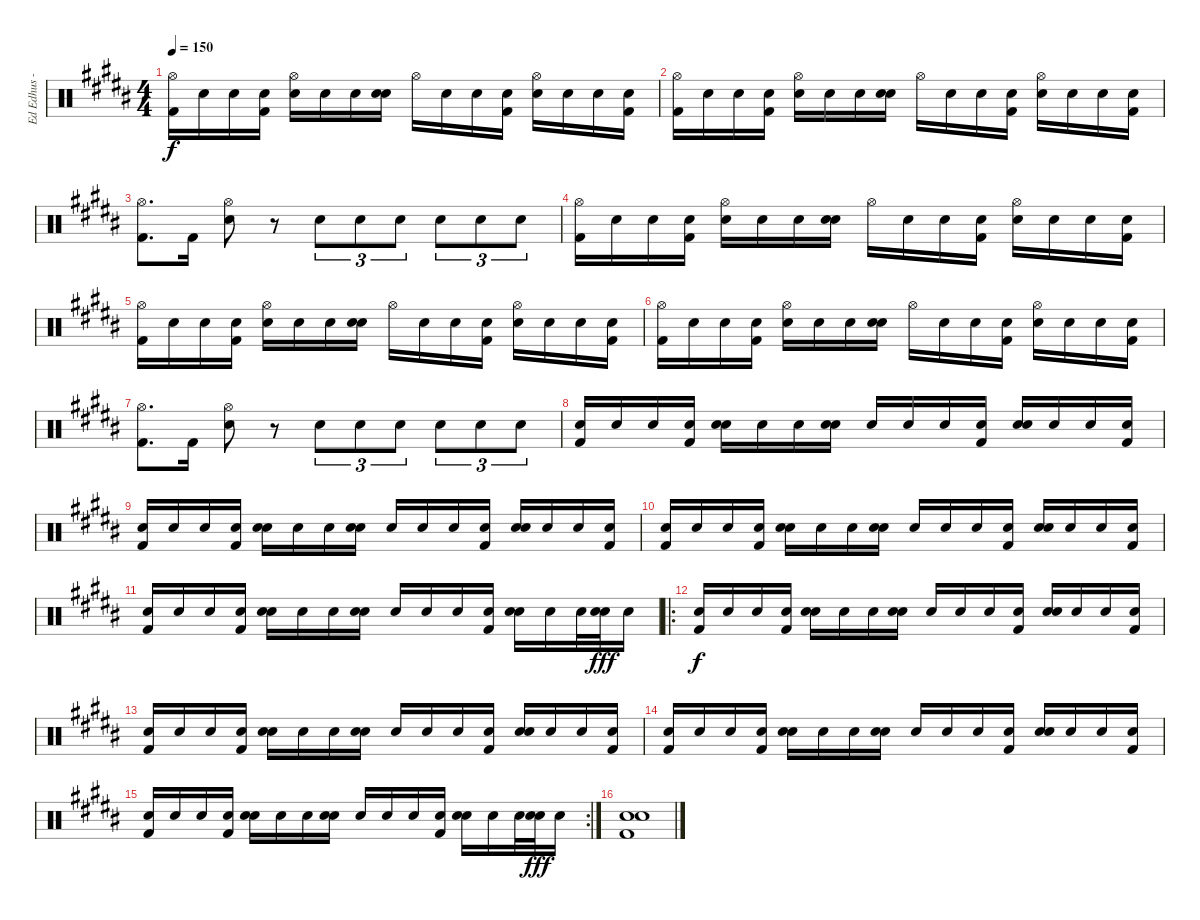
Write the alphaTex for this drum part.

\track ("Ed Edhus - Drums" "Ed Edhus -") {instrument percussion bank 127}
\staff {score}
\articulation defaults
\ts (4 4)
\tempo 150
\clef neutral
\ks g#minor
("Hi-Hat (open)" "Kick (hit) 2").16{dy f} "Snare (hit)".16 "Snare (hit)".16 ("Snare (hit)" "Kick (hit) 2").16 ("Hi-Hat (open)" "Snare (hit) 2").16 "Snare (hit)".16 "Snare (hit)".16 ("Snare (hit)" "Snare (hit) 2").16 "Hi-Hat (open)".16 "Snare (hit)".16 "Snare (hit)".16 ("Snare (hit)" "Kick (hit) 2").16 ("Hi-Hat (open)" "Snare (hit) 2").16 "Snare (hit)".16 "Snare (hit)".16 ("Snare (hit)" "Kick (hit) 2").16 |
("Hi-Hat (open)" "Kick (hit) 2").16 "Snare (hit)".16 "Snare (hit)".16 ("Snare (hit)" "Kick (hit) 2").16 ("Hi-Hat (open)" "Snare (hit) 2").16 "Snare (hit)".16 "Snare (hit)".16 ("Snare (hit)" "Snare (hit) 2").16 "Hi-Hat (open)".16 "Snare (hit)".16 "Snare (hit)".16 ("Snare (hit)" "Kick (hit) 2").16 ("Hi-Hat (open)" "Snare (hit) 2").16 "Snare (hit)".16 "Snare (hit)".16 ("Snare (hit)" "Kick (hit) 2").16 |
("Hi-Hat (open)" "Kick (hit) 2").8{d} "Kick (hit) 2".16 ("Hi-Hat (open)" "Snare (hit) 2").8 r.8 "Snare (hit) 2".8{tu (3 2)} "Snare (hit) 2".8{tu (3 2)} "Snare (hit) 2".8{tu (3 2)} "Snare (hit) 2".8{tu (3 2)} "Snare (hit) 2".8{tu (3 2)} "Snare (hit) 2".8{tu (3 2)} |
("Hi-Hat (open)" "Kick (hit) 2").16 "Snare (hit)".16 "Snare (hit)".16 ("Snare (hit)" "Kick (hit) 2").16 ("Hi-Hat (open)" "Snare (hit) 2").16 "Snare (hit)".16 "Snare (hit)".16 ("Snare (hit)" "Snare (hit) 2").16 "Hi-Hat (open)".16 "Snare (hit)".16 "Snare (hit)".16 ("Snare (hit)" "Kick (hit) 2").16 ("Hi-Hat (open)" "Snare (hit) 2").16 "Snare (hit)".16 "Snare (hit)".16 ("Snare (hit)" "Kick (hit) 2").16 |
("Hi-Hat (open)" "Kick (hit) 2").16 "Snare (hit)".16 "Snare (hit)".16 ("Snare (hit)" "Kick (hit) 2").16 ("Hi-Hat (open)" "Snare (hit) 2").16 "Snare (hit)".16 "Snare (hit)".16 ("Snare (hit)" "Snare (hit) 2").16 "Hi-Hat (open)".16 "Snare (hit)".16 "Snare (hit)".16 ("Snare (hit)" "Kick (hit) 2").16 ("Hi-Hat (open)" "Snare (hit) 2").16 "Snare (hit)".16 "Snare (hit)".16 ("Snare (hit)" "Kick (hit) 2").16 |
("Hi-Hat (open)" "Kick (hit) 2").16 "Snare (hit)".16 "Snare (hit)".16 ("Snare (hit)" "Kick (hit) 2").16 ("Hi-Hat (open)" "Snare (hit) 2").16 "Snare (hit)".16 "Snare (hit)".16 ("Snare (hit)" "Snare (hit) 2").16 "Hi-Hat (open)".16 "Snare (hit)".16 "Snare (hit)".16 ("Snare (hit)" "Kick (hit) 2").16 ("Hi-Hat (open)" "Snare (hit) 2").16 "Snare (hit)".16 "Snare (hit)".16 ("Snare (hit)" "Kick (hit) 2").16 |
("Hi-Hat (open)" "Kick (hit) 2").8{d} "Kick (hit) 2".16 ("Hi-Hat (open)" "Snare (hit) 2").8 r.8 "Snare (hit) 2".8{tu (3 2)} "Snare (hit) 2".8{tu (3 2)} "Snare (hit) 2".8{tu (3 2)} "Snare (hit) 2".8{tu (3 2)} "Snare (hit) 2".8{tu (3 2)} "Snare (hit) 2".8{tu (3 2)} |
("Snare (hit)" "Kick (hit) 2").16 "Snare (hit)".16 "Snare (hit)".16 ("Snare (hit)" "Kick (hit) 2").16 ("Snare (hit)" "Snare (hit) 2").16 "Snare (hit)".16 "Snare (hit)".16 ("Snare (hit)" "Snare (hit) 2").16 "Snare (hit)".16 "Snare (hit)".16 "Snare (hit)".16 ("Snare (hit)" "Kick (hit) 2").16 ("Snare (hit)" "Snare (hit) 2").16 "Snare (hit)".16 "Snare (hit)".16 ("Snare (hit)" "Kick (hit) 2").16 |
("Snare (hit)" "Kick (hit) 2").16 "Snare (hit)".16 "Snare (hit)".16 ("Snare (hit)" "Kick (hit) 2").16 ("Snare (hit)" "Snare (hit) 2").16 "Snare (hit)".16 "Snare (hit)".16 ("Snare (hit)" "Snare (hit) 2").16 "Snare (hit)".16 "Snare (hit)".16 "Snare (hit)".16 ("Snare (hit)" "Kick (hit) 2").16 ("Snare (hit)" "Snare (hit) 2").16 "Snare (hit)".16 "Snare (hit)".16 ("Snare (hit)" "Kick (hit) 2").16 |
("Snare (hit)" "Kick (hit) 2").16 "Snare (hit)".16 "Snare (hit)".16 ("Snare (hit)" "Kick (hit) 2").16 ("Snare (hit)" "Snare (hit) 2").16 "Snare (hit)".16 "Snare (hit)".16 ("Snare (hit)" "Snare (hit) 2").16 "Snare (hit)".16 "Snare (hit)".16 "Snare (hit)".16 ("Snare (hit)" "Kick (hit) 2").16 ("Snare (hit)" "Snare (hit) 2").16 "Snare (hit)".16 "Snare (hit)".16 ("Snare (hit)" "Kick (hit) 2").16 |
("Snare (hit)" "Kick (hit) 2").16 "Snare (hit)".16 "Snare (hit)".16 ("Snare (hit)" "Kick (hit) 2").16 ("Snare (hit)" "Snare (hit) 2").16 "Snare (hit)".16 "Snare (hit)".16 ("Snare (hit)" "Snare (hit) 2").16 "Snare (hit)".16 "Snare (hit)".16 "Snare (hit)".16 ("Snare (hit)" "Kick (hit) 2").16 ("Snare (hit)" "Snare (hit) 2").16 "Snare (hit)".16 "Snare (hit)".32 ("Snare (hit)" "Snare (hit) 2").32{dy fff} "Snare (hit)".16 |
\ro
("Snare (hit)" "Kick (hit) 2").16{dy f} "Snare (hit)".16 "Snare (hit)".16 ("Snare (hit)" "Kick (hit) 2").16 ("Snare (hit)" "Snare (hit) 2").16 "Snare (hit)".16 "Snare (hit)".16 ("Snare (hit)" "Snare (hit) 2").16 "Snare (hit)".16 "Snare (hit)".16 "Snare (hit)".16 ("Snare (hit)" "Kick (hit) 2").16 ("Snare (hit)" "Snare (hit) 2").16 "Snare (hit)".16 "Snare (hit)".16 ("Snare (hit)" "Kick (hit) 2").16 |
("Snare (hit)" "Kick (hit) 2").16 "Snare (hit)".16 "Snare (hit)".16 ("Snare (hit)" "Kick (hit) 2").16 ("Snare (hit)" "Snare (hit) 2").16 "Snare (hit)".16 "Snare (hit)".16 ("Snare (hit)" "Snare (hit) 2").16 "Snare (hit)".16 "Snare (hit)".16 "Snare (hit)".16 ("Snare (hit)" "Kick (hit) 2").16 ("Snare (hit)" "Snare (hit) 2").16 "Snare (hit)".16 "Snare (hit)".16 ("Snare (hit)" "Kick (hit) 2").16 |
("Snare (hit)" "Kick (hit) 2").16 "Snare (hit)".16 "Snare (hit)".16 ("Snare (hit)" "Kick (hit) 2").16 ("Snare (hit)" "Snare (hit) 2").16 "Snare (hit)".16 "Snare (hit)".16 ("Snare (hit)" "Snare (hit) 2").16 "Snare (hit)".16 "Snare (hit)".16 "Snare (hit)".16 ("Snare (hit)" "Kick (hit) 2").16 ("Snare (hit)" "Snare (hit) 2").16 "Snare (hit)".16 "Snare (hit)".16 ("Snare (hit)" "Kick (hit) 2").16 |
\rc 2
("Snare (hit)" "Kick (hit) 2").16 "Snare (hit)".16 "Snare (hit)".16 ("Snare (hit)" "Kick (hit) 2").16 ("Snare (hit)" "Snare (hit) 2").16 "Snare (hit)".16 "Snare (hit)".16 ("Snare (hit)" "Snare (hit) 2").16 "Snare (hit)".16 "Snare (hit)".16 "Snare (hit)".16 ("Snare (hit)" "Kick (hit) 2").16 ("Snare (hit)" "Snare (hit) 2").16 "Snare (hit)".16 "Snare (hit)".32 ("Snare (hit)" "Snare (hit) 2").32{dy fff} "Snare (hit)".16 |
("Snare (hit) 2" "Snare (hit) 2" "Kick (hit) 2").1
